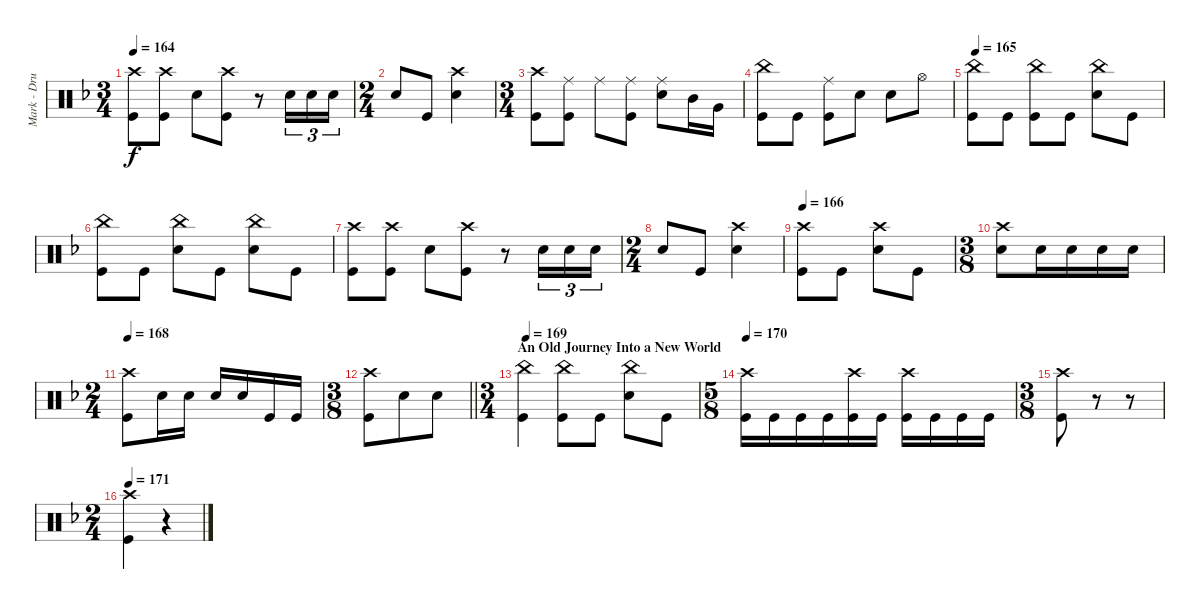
\track ("Mark - Drums" "Mark - Dru") {instrument percussion}
\staff {score}
\articulation defaults
\ts (3 4)
\tempo 164
\clef neutral
\ks dminor
("Kick (hit)" "Crash high (hit)").8{dy f} ("Kick (hit)" "Crash high (hit)").8 "Snare (hit) 2".8 ("Kick (hit)" "Crash high (hit)").8 r.8 "Snare (hit) 2".16{tu (3 2)} "Snare (hit) 2".16{tu (3 2)} "Snare (hit) 2".16{tu (3 2)} |
\ts (2 4)
"Snare (hit) 2".8 "Kick (hit)".8 ("Snare (hit) 2" "Crash high (hit)").4 |
\ts (3 4)
("Crash high (hit)" "Kick (hit)").8 ("Kick (hit)" "Ride (middle)").8 "Ride (middle)".8 ("Ride (middle)" "Kick (hit)").8 ("Ride (middle)" "Snare (hit) 2").8 "Mid Tom (hit)".16 "Very Low Tom (hit)".16 |
("China (hit)" "Kick (hit)").8 "Kick (hit)".8 ("Kick (hit)" "Ride (middle)").8 "Snare (hit) 2".8 "Snare (hit) 2".8 "Hi-Hat (open)".8 |
\tempo 165
("Kick (hit)" "China (hit)").8 "Kick (hit)".8 ("Kick (hit)" "China (hit)").8 "Kick (hit)".8 ("Snare (hit) 2" "China (hit)").8 "Kick (hit)".8 |
("Kick (hit)" "China (hit)").8 "Kick (hit)".8 ("Snare (hit) 2" "China (hit)").8 "Kick (hit)".8 ("Snare (hit) 2" "China (hit)").8 "Kick (hit)".8 |
("Kick (hit)" "Crash high (hit)").8 ("Kick (hit)" "Crash high (hit)").8 "Snare (hit) 2".8 ("Kick (hit)" "Crash high (hit)").8 r.8 "Snare (hit) 2".16{tu (3 2)} "Snare (hit) 2".16{tu (3 2)} "Snare (hit) 2".16{tu (3 2)} |
\ts (2 4)
"Snare (hit) 2".8 "Kick (hit)".8 ("Snare (hit) 2" "Crash high (hit)").4 |
\tempo 166
("Kick (hit)" "Crash high (hit)").8 "Kick (hit)".8 ("Snare (hit) 2" "Crash high (hit)").8 "Kick (hit)".8 |
\ts (3 8)
("Snare (hit) 2" "Crash high (hit)").8 "Snare (hit) 2".16 "Snare (hit) 2".16 "Snare (hit) 2".16 "Snare (hit) 2".16 |
\ts (2 4)
\tempo 168
("Kick (hit)" "Crash high (hit)").8 "Snare (hit) 2".16 "Snare (hit) 2".16 "Snare (hit) 2".16 "Snare (hit) 2".16 "Kick (hit)".16 "Kick (hit)".16 |
\ts (3 8)
\barLineRight lightlight
("Kick (hit)" "Crash high (hit)").8 "Snare (hit) 2".8 "Snare (hit) 2".8 |
\ts (3 4)
\section ("" "An Old Journey Into a New World")
\tempo 169
("China (hit)" "Kick (hit)").4 ("Kick (hit)" "China (hit)").8 "Kick (hit)".8 ("Snare (hit) 2" "China (hit)").8 "Kick (hit)".8 |
\ts (5 8)
\tempo 170
("Kick (hit)" "Crash high (hit)").16 "Kick (hit)".16 "Kick (hit)".16 "Kick (hit)".16 ("Kick (hit)" "Crash high (hit)").16 "Kick (hit)".16 ("Kick (hit)" "Crash high (hit)").16 "Kick (hit)".16 "Kick (hit)".16 "Kick (hit)".16 |
\ts (3 8)
("Crash high (hit)" "Kick (hit)").8 r.8 r.8 |
\ts (2 4)
\tempo 171
("Kick (hit)" "Crash high (hit)").4 r.4
